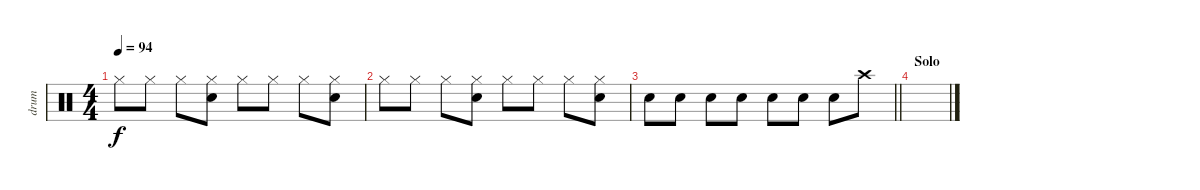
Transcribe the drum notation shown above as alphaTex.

\track ("drum" "drum") {instrument percussion}
\staff {score}
\articulation defaults
\ts (4 4)
\tempo 94
\clef neutral
\ks c "Hi-Hat (closed)".8{dy f} "Hi-Hat (closed)".8 "Hi-Hat (closed)".8
("Hi-Hat (closed)" "Snare (hit) 2").8 "Hi-Hat (closed)".8 "Hi-Hat (closed)".8 "Hi-Hat (closed)".8 ("Hi-Hat (closed)" "Snare (hit) 2").8 |
"Hi-Hat (closed)".8 "Hi-Hat (closed)".8 "Hi-Hat (closed)".8 ("Hi-Hat (closed)" "Snare (hit) 2").8 "Hi-Hat (closed)".8 "Hi-Hat (closed)".8 "Hi-Hat (closed)".8 ("Hi-Hat (closed)" "Snare (hit) 2").8 |
\barLineRight lightlight "Snare (hit) 2".8 "Snare (hit) 2".8 "Snare (hit) 2".8 "Snare (hit) 2".8 "Snare (hit) 2".8 "Snare (hit) 2".8 "Snare (hit) 2".8 "Crash high (hit)".8
|
\section ("" "Solo")
